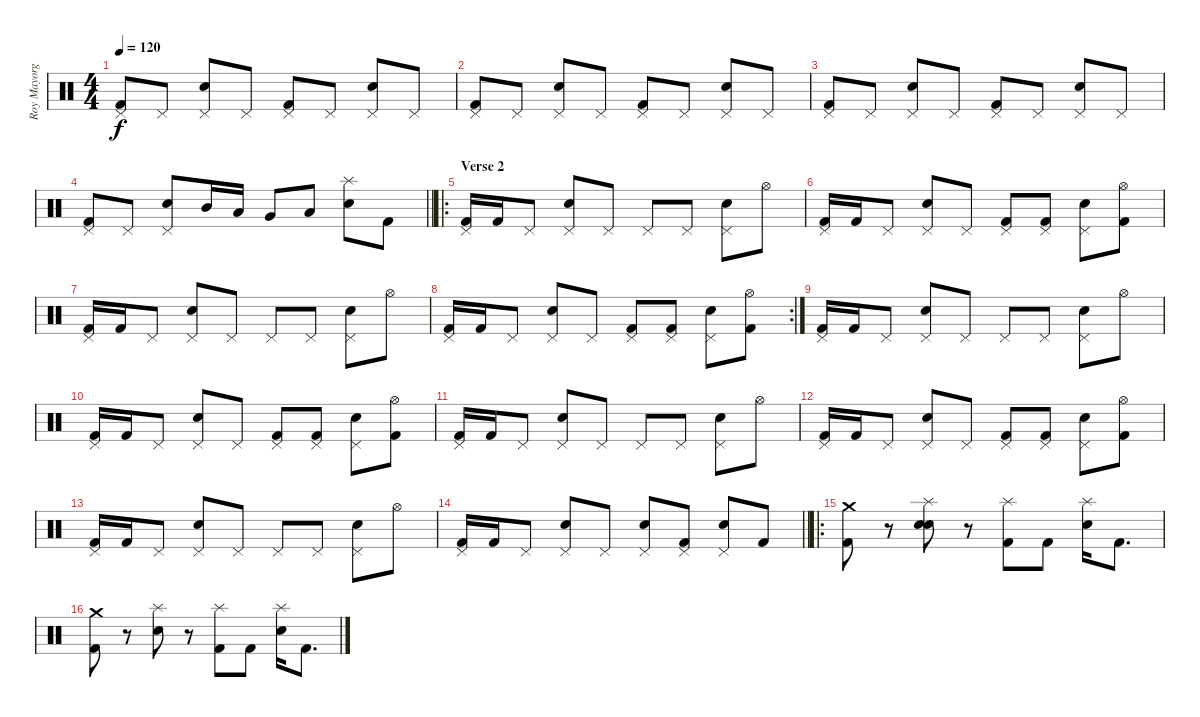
\track ("Roy Mayorga" "Roy Mayorg") {instrument percussion}
\staff {score}
\articulation defaults
\ts (4 4)
\tempo 120
\clef neutral
\ks c
("Pedal Hi-Hat (hit)" "Kick (hit) 2").8{dy f} "Pedal Hi-Hat (hit)".8 ("Pedal Hi-Hat (hit)" "Electric Snare (hit)").8 "Pedal Hi-Hat (hit)".8 ("Pedal Hi-Hat (hit)" "Kick (hit) 2").8 "Pedal Hi-Hat (hit)".8 ("Pedal Hi-Hat (hit)" "Electric Snare (hit)").8 "Pedal Hi-Hat (hit)".8 |
("Pedal Hi-Hat (hit)" "Kick (hit) 2").8 "Pedal Hi-Hat (hit)".8 ("Pedal Hi-Hat (hit)" "Electric Snare (hit)").8 "Pedal Hi-Hat (hit)".8 ("Pedal Hi-Hat (hit)" "Kick (hit) 2").8 "Pedal Hi-Hat (hit)".8 ("Pedal Hi-Hat (hit)" "Electric Snare (hit)").8 "Pedal Hi-Hat (hit)".8 |
("Pedal Hi-Hat (hit)" "Kick (hit) 2").8 "Pedal Hi-Hat (hit)".8 ("Pedal Hi-Hat (hit)" "Electric Snare (hit)").8 "Pedal Hi-Hat (hit)".8 ("Pedal Hi-Hat (hit)" "Kick (hit) 2").8 "Pedal Hi-Hat (hit)".8 ("Pedal Hi-Hat (hit)" "Electric Snare (hit)").8 "Pedal Hi-Hat (hit)".8 |
\barLineRight lightlight
("Pedal Hi-Hat (hit)" "Kick (hit) 2").8 "Pedal Hi-Hat (hit)".8 ("Pedal Hi-Hat (hit)" "Electric Snare (hit)").8 "Mid Tom (hit)".16 "Low Tom (hit)".16 "Very Low Tom (hit)".8 "Low Floor Tom (hit)".8 ("Splash (hit)" "Electric Snare (hit)").8 "Kick (hit) 2".8 |
\ro
\section ("" "Verse 2")
("Pedal Hi-Hat (hit)" "Kick (hit) 2").16 "Kick (hit) 2".16 "Pedal Hi-Hat (hit)".8 ("Pedal Hi-Hat (hit)" "Electric Snare (hit)").8 "Pedal Hi-Hat (hit)".8 "Pedal Hi-Hat (hit)".8 "Pedal Hi-Hat (hit)".8 ("Pedal Hi-Hat (hit)" "Electric Snare (hit)").8 "Hi-Hat (open)".8 |
("Pedal Hi-Hat (hit)" "Kick (hit) 2").16 "Kick (hit) 2".16 "Pedal Hi-Hat (hit)".8 ("Pedal Hi-Hat (hit)" "Electric Snare (hit)").8 "Pedal Hi-Hat (hit)".8 ("Pedal Hi-Hat (hit)" "Kick (hit) 2").8 ("Pedal Hi-Hat (hit)" "Kick (hit) 2").8 ("Pedal Hi-Hat (hit)" "Electric Snare (hit)").8 ("Hi-Hat (open)" "Kick (hit) 2").8 |
("Pedal Hi-Hat (hit)" "Kick (hit) 2").16 "Kick (hit) 2".16 "Pedal Hi-Hat (hit)".8 ("Pedal Hi-Hat (hit)" "Electric Snare (hit)").8 "Pedal Hi-Hat (hit)".8 "Pedal Hi-Hat (hit)".8 "Pedal Hi-Hat (hit)".8 ("Pedal Hi-Hat (hit)" "Electric Snare (hit)").8 "Hi-Hat (open)".8 |
\rc 2
("Pedal Hi-Hat (hit)" "Kick (hit) 2").16 "Kick (hit) 2".16 "Pedal Hi-Hat (hit)".8 ("Pedal Hi-Hat (hit)" "Electric Snare (hit)").8 "Pedal Hi-Hat (hit)".8 ("Pedal Hi-Hat (hit)" "Kick (hit) 2").8 ("Pedal Hi-Hat (hit)" "Kick (hit) 2").8 ("Pedal Hi-Hat (hit)" "Electric Snare (hit)").8 ("Hi-Hat (open)" "Kick (hit) 2").8 |
("Pedal Hi-Hat (hit)" "Kick (hit) 2").16 "Kick (hit) 2".16 "Pedal Hi-Hat (hit)".8 ("Pedal Hi-Hat (hit)" "Electric Snare (hit)").8 "Pedal Hi-Hat (hit)".8 "Pedal Hi-Hat (hit)".8 "Pedal Hi-Hat (hit)".8 ("Pedal Hi-Hat (hit)" "Electric Snare (hit)").8 "Hi-Hat (open)".8 |
("Pedal Hi-Hat (hit)" "Kick (hit) 2").16 "Kick (hit) 2".16 "Pedal Hi-Hat (hit)".8 ("Pedal Hi-Hat (hit)" "Electric Snare (hit)").8 "Pedal Hi-Hat (hit)".8 ("Pedal Hi-Hat (hit)" "Kick (hit) 2").8 ("Pedal Hi-Hat (hit)" "Kick (hit) 2").8 ("Pedal Hi-Hat (hit)" "Electric Snare (hit)").8 ("Hi-Hat (open)" "Kick (hit) 2").8 |
("Pedal Hi-Hat (hit)" "Kick (hit) 2").16 "Kick (hit) 2".16 "Pedal Hi-Hat (hit)".8 ("Pedal Hi-Hat (hit)" "Electric Snare (hit)").8 "Pedal Hi-Hat (hit)".8 "Pedal Hi-Hat (hit)".8 "Pedal Hi-Hat (hit)".8 ("Pedal Hi-Hat (hit)" "Electric Snare (hit)").8 "Hi-Hat (open)".8 |
("Pedal Hi-Hat (hit)" "Kick (hit) 2").16 "Kick (hit) 2".16 "Pedal Hi-Hat (hit)".8 ("Pedal Hi-Hat (hit)" "Electric Snare (hit)").8 "Pedal Hi-Hat (hit)".8 ("Pedal Hi-Hat (hit)" "Kick (hit) 2").8 ("Pedal Hi-Hat (hit)" "Kick (hit) 2").8 ("Pedal Hi-Hat (hit)" "Electric Snare (hit)").8 ("Hi-Hat (open)" "Kick (hit) 2").8 |
("Pedal Hi-Hat (hit)" "Kick (hit) 2").16 "Kick (hit) 2".16 "Pedal Hi-Hat (hit)".8 ("Pedal Hi-Hat (hit)" "Electric Snare (hit)").8 "Pedal Hi-Hat (hit)".8 "Pedal Hi-Hat (hit)".8 "Pedal Hi-Hat (hit)".8 ("Pedal Hi-Hat (hit)" "Electric Snare (hit)").8 "Hi-Hat (open)".8 |
\barLineRight lightlight
("Pedal Hi-Hat (hit)" "Kick (hit) 2").16 "Kick (hit) 2".16 "Pedal Hi-Hat (hit)".8 ("Pedal Hi-Hat (hit)" "Electric Snare (hit)").8 "Pedal Hi-Hat (hit)".8 ("Pedal Hi-Hat (hit)" "Electric Snare (hit)").8 ("Pedal Hi-Hat (hit)" "Kick (hit) 2").8 ("Pedal Hi-Hat (hit)" "Electric Snare (hit)").8 "Kick (hit) 2".8 |
\ro
("Crash medium (hit)" "Kick (hit) 2").8 r.8 ("Splash (hit)" "Electric Snare (hit)" "Electric Snare (hit)").8 r.8 ("Splash (hit)" "Kick (hit) 2").8 "Kick (hit) 2".8 ("Splash (hit)" "Electric Snare (hit)").16 "Kick (hit) 2".8{d} |
("Crash medium (hit)" "Kick (hit) 2").8 r.8 ("Splash (hit)" "Electric Snare (hit)").8 r.8 ("Splash (hit)" "Kick (hit) 2").8 "Kick (hit) 2".8 ("Splash (hit)" "Electric Snare (hit)").16 "Kick (hit) 2".8{d}
